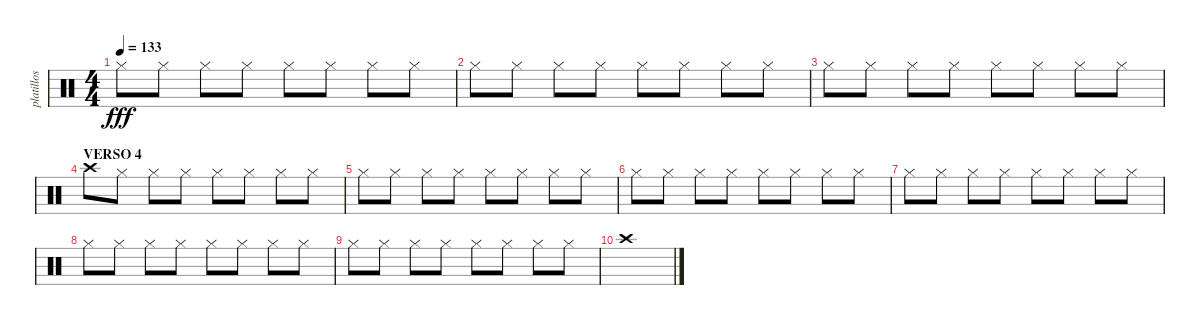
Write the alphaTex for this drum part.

\track ("platillos" "platillos") {instrument percussion}
\staff {score}
\articulation defaults
\ts (4 4)
\tempo 133
\clef neutral
\ks c "Hi-Hat (closed)".8{dy fff} "Hi-Hat (closed)".8 "Hi-Hat (closed)".8 "Hi-Hat (closed)".8 "Hi-Hat (closed)".8 "Hi-Hat (closed)".8 "Hi-Hat (closed)".8 "Hi-Hat (closed)".8
|
"Hi-Hat (closed)".8 "Hi-Hat (closed)".8 "Hi-Hat (closed)".8 "Hi-Hat (closed)".8 "Hi-Hat (closed)".8 "Hi-Hat (closed)".8 "Hi-Hat (closed)".8 "Hi-Hat (closed)".8 |
"Hi-Hat (closed)".8 "Hi-Hat (closed)".8 "Hi-Hat (closed)".8 "Hi-Hat (closed)".8 "Hi-Hat (closed)".8 "Hi-Hat (closed)".8 "Hi-Hat (closed)".8 "Hi-Hat (closed)".8 |
\section ("" "VERSO 4")
"Crash high (hit)".8 "Hi-Hat (closed)".8 "Hi-Hat (closed)".8 "Hi-Hat (closed)".8 "Hi-Hat (closed)".8 "Hi-Hat (closed)".8 "Hi-Hat (closed)".8 "Hi-Hat (closed)".8 |
"Hi-Hat (closed)".8 "Hi-Hat (closed)".8 "Hi-Hat (closed)".8 "Hi-Hat (closed)".8 "Hi-Hat (closed)".8 "Hi-Hat (closed)".8 "Hi-Hat (closed)".8 "Hi-Hat (closed)".8 |
"Hi-Hat (closed)".8 "Hi-Hat (closed)".8 "Hi-Hat (closed)".8 "Hi-Hat (closed)".8 "Hi-Hat (closed)".8 "Hi-Hat (closed)".8 "Hi-Hat (closed)".8 "Hi-Hat (closed)".8 |
"Hi-Hat (closed)".8 "Hi-Hat (closed)".8 "Hi-Hat (closed)".8 "Hi-Hat (closed)".8 "Hi-Hat (closed)".8 "Hi-Hat (closed)".8 "Hi-Hat (closed)".8 "Hi-Hat (closed)".8 |
"Hi-Hat (closed)".8 "Hi-Hat (closed)".8 "Hi-Hat (closed)".8 "Hi-Hat (closed)".8 "Hi-Hat (closed)".8 "Hi-Hat (closed)".8 "Hi-Hat (closed)".8 "Hi-Hat (closed)".8 |
"Hi-Hat (closed)".8 "Hi-Hat (closed)".8 "Hi-Hat (closed)".8 "Hi-Hat (closed)".8 "Hi-Hat (closed)".8 "Hi-Hat (closed)".8 "Hi-Hat (closed)".8 "Hi-Hat (closed)".8 |
"Crash high (hit)".1
